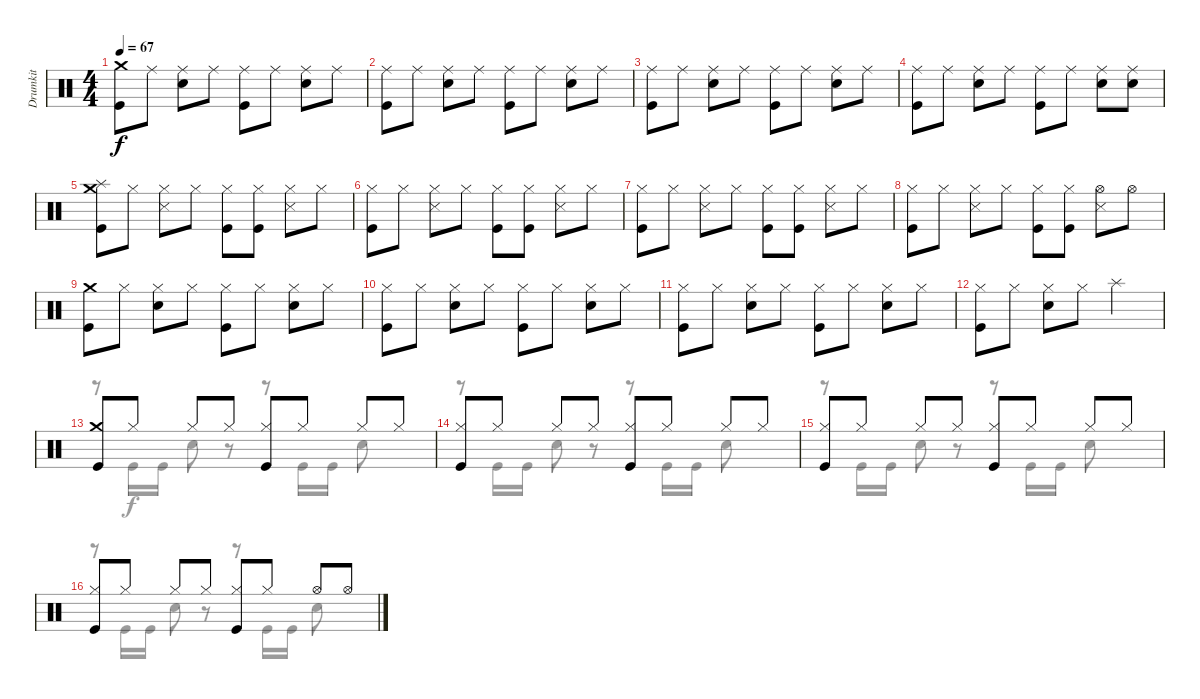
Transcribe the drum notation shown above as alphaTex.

\track ("Drumkit" "Drumkit") {instrument percussion}
\staff {score}
\articulation defaults
\voice
\ts (4 4)
\tempo 67
\clef neutral
\ks c
("Kick (hit)" "Crash medium (hit)").8{dy f} "Ride (middle)".8 ("Snare (hit) 2" "Ride (middle)").8 "Ride (middle)".8 ("Kick (hit)" "Ride (middle)").8 "Ride (middle)".8 ("Snare (hit) 2" "Ride (middle)").8 "Ride (middle)".8 |
("Kick (hit)" "Ride (middle)").8 "Ride (middle)".8 ("Snare (hit) 2" "Ride (middle)").8 "Ride (middle)".8 ("Kick (hit)" "Ride (middle)").8 "Ride (middle)".8 ("Snare (hit) 2" "Ride (middle)").8 "Ride (middle)".8 |
("Kick (hit)" "Ride (middle)").8 "Ride (middle)".8 ("Snare (hit) 2" "Ride (middle)").8 "Ride (middle)".8 ("Kick (hit)" "Ride (middle)").8 "Ride (middle)".8 ("Snare (hit) 2" "Ride (middle)").8 "Ride (middle)".8 |
("Kick (hit)" "Ride (middle)").8 "Ride (middle)".8 ("Snare (hit) 2" "Ride (middle)").8 "Ride (middle)".8 ("Kick (hit)" "Ride (middle)").8 "Ride (middle)".8 ("Snare (hit) 2" "Ride (middle)").8 ("Ride (middle)" "Snare (hit) 2").8 |
("Kick (hit)" "Crash medium (hit)" "Splash (hit)").8 "Hi-Hat (closed)".8 ("Hi-Hat (closed)" "Snare (side stick) 3").8 "Hi-Hat (closed)".8 ("Hi-Hat (closed)" "Kick (hit)").8 ("Hi-Hat (closed)" "Kick (hit)").8 ("Hi-Hat (closed)" "Snare (side stick) 3").8 "Hi-Hat (closed)".8 |
("Hi-Hat (closed)" "Kick (hit)").8 "Hi-Hat (closed)".8 ("Hi-Hat (closed)" "Snare (side stick) 3").8 "Hi-Hat (closed)".8 ("Hi-Hat (closed)" "Kick (hit)").8 ("Hi-Hat (closed)" "Kick (hit)").8 ("Hi-Hat (closed)" "Snare (side stick) 3").8 "Hi-Hat (closed)".8 |
("Hi-Hat (closed)" "Kick (hit)").8 "Hi-Hat (closed)".8 ("Hi-Hat (closed)" "Snare (side stick) 3").8 "Hi-Hat (closed)".8 ("Hi-Hat (closed)" "Kick (hit)").8 ("Hi-Hat (closed)" "Kick (hit)").8 ("Hi-Hat (closed)" "Snare (side stick) 3").8 "Hi-Hat (closed)".8 |
("Hi-Hat (closed)" "Kick (hit)").8 "Hi-Hat (closed)".8 ("Hi-Hat (closed)" "Snare (side stick) 3").8 "Hi-Hat (closed)".8 ("Hi-Hat (closed)" "Kick (hit)").8 ("Hi-Hat (closed)" "Kick (hit)").8 ("Snare (side stick) 3" "Hi-Hat (open)").8 "Hi-Hat (open)".8 |
("Kick (hit)" "Crash medium (hit)").8 "Hi-Hat (closed)".8 ("Hi-Hat (closed)" "Snare (hit) 2").8 "Hi-Hat (closed)".8 ("Hi-Hat (closed)" "Kick (hit)").8 "Hi-Hat (closed)".8 ("Hi-Hat (closed)" "Snare (hit) 2").8 "Hi-Hat (closed)".8 |
("Hi-Hat (closed)" "Kick (hit)").8 "Hi-Hat (closed)".8 ("Hi-Hat (closed)" "Snare (hit) 2").8 "Hi-Hat (closed)".8 ("Hi-Hat (closed)" "Kick (hit)").8 "Hi-Hat (closed)".8 ("Hi-Hat (closed)" "Snare (hit) 2").8 "Hi-Hat (closed)".8 |
("Kick (hit)" "Hi-Hat (closed)").8 "Hi-Hat (closed)".8 ("Hi-Hat (closed)" "Snare (hit) 2").8 "Hi-Hat (closed)".8 ("Hi-Hat (closed)" "Kick (hit)").8 "Hi-Hat (closed)".8 ("Hi-Hat (closed)" "Snare (hit) 2").8 "Hi-Hat (closed)".8 |
("Hi-Hat (closed)" "Kick (hit)").8 "Hi-Hat (closed)".8 ("Hi-Hat (closed)" "Snare (hit) 2").8 "Hi-Hat (closed)".8 "Splash (hit)".2 |
("Crash medium (hit)" "Kick (hit)").8 "Hi-Hat (closed)".8 "Hi-Hat (closed)".8 "Hi-Hat (closed)".8 ("Hi-Hat (closed)" "Kick (hit)").8 "Hi-Hat (closed)".8 "Hi-Hat (closed)".8 "Hi-Hat (closed)".8 |
("Kick (hit)" "Hi-Hat (closed)").8 "Hi-Hat (closed)".8 "Hi-Hat (closed)".8 "Hi-Hat (closed)".8 ("Hi-Hat (closed)" "Kick (hit)").8 "Hi-Hat (closed)".8 "Hi-Hat (closed)".8 "Hi-Hat (closed)".8 |
("Kick (hit)" "Hi-Hat (closed)").8 "Hi-Hat (closed)".8 "Hi-Hat (closed)".8 "Hi-Hat (closed)".8 ("Hi-Hat (closed)" "Kick (hit)").8 "Hi-Hat (closed)".8 "Hi-Hat (closed)".8 "Hi-Hat (closed)".8 |
("Kick (hit)" "Hi-Hat (closed)").8 "Hi-Hat (closed)".8 "Hi-Hat (closed)".8 "Hi-Hat (closed)".8 ("Hi-Hat (closed)" "Kick (hit)").8 "Hi-Hat (closed)".8 "Hi-Hat (open)".8 "Hi-Hat (open)".8
\voice
\clef neutral
\ottava regular
\simile none
\ks c
|
|
|
|
|
|
|
|
|
|
|
|
r.8 "Kick (hit)".16 "Kick (hit)".16 "Snare (hit) 2".8 r.8 r.8 "Kick (hit)".16 "Kick (hit)".16 "Snare (hit) 2".8 |
r.8 "Kick (hit)".16 "Kick (hit)".16 "Snare (hit) 2".8 r.8 r.8 "Kick (hit)".16 "Kick (hit)".16 "Snare (hit) 2".8 |
r.8 "Kick (hit)".16 "Kick (hit)".16 "Snare (hit) 2".8 r.8 r.8 "Kick (hit)".16 "Kick (hit)".16 "Snare (hit) 2".8 |
r.8 "Kick (hit)".16 "Kick (hit)".16 "Snare (hit) 2".8 r.8 r.8 "Kick (hit)".16 "Kick (hit)".16 "Snare (hit) 2".8
